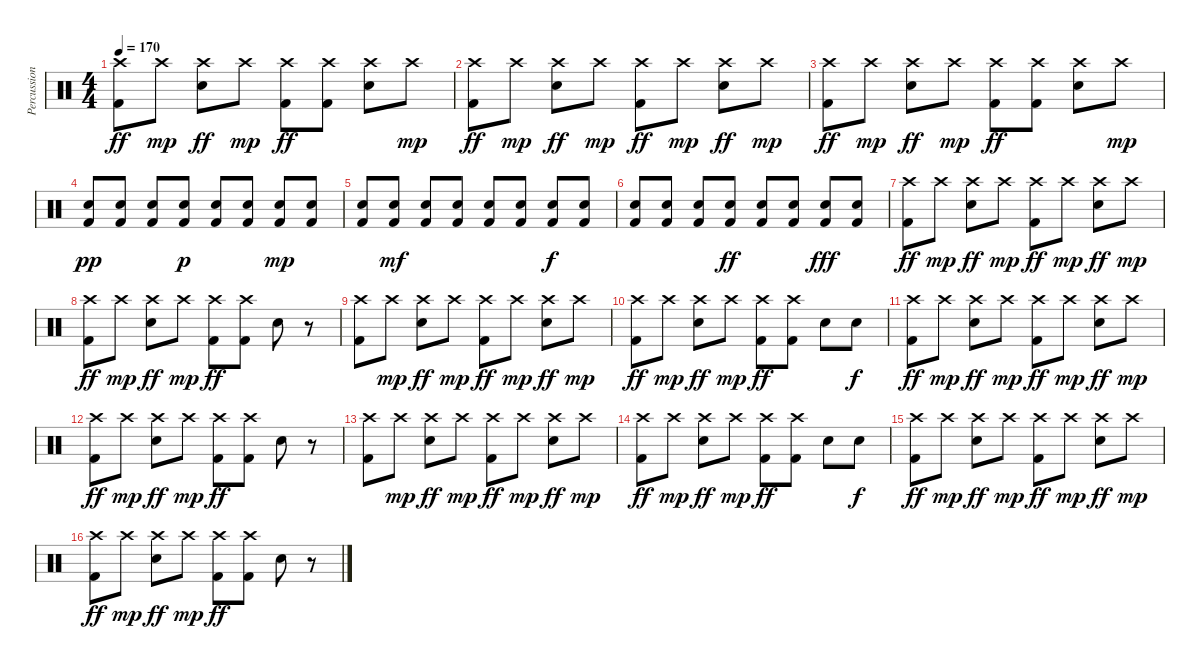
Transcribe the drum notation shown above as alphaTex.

\track ("Percussion" "Percussion") {instrument percussion}
\staff {score}
\articulation defaults
\ts (4 4)
\tempo 170
\clef neutral
\ks c
("Crash high (hit)" "Kick (hit) 2").8{dy ff} "Crash high (hit)".8{dy mp} ("Crash high (hit)" "Electric Snare (hit)").8{dy ff} "Crash high (hit)".8{dy mp} ("Crash high (hit)" "Kick (hit) 2").8{dy ff} ("Crash high (hit)" "Kick (hit) 2").8 ("Crash high (hit)" "Electric Snare (hit)").8 "Crash high (hit)".8{dy mp} |
("Crash high (hit)" "Kick (hit) 2").8{dy ff} "Crash high (hit)".8{dy mp} ("Crash high (hit)" "Electric Snare (hit)").8{dy ff} "Crash high (hit)".8{dy mp} ("Crash high (hit)" "Kick (hit) 2").8{dy ff} "Crash high (hit)".8{dy mp} ("Crash high (hit)" "Electric Snare (hit)").8{dy ff} "Crash high (hit)".8{dy mp} |
("Crash high (hit)" "Kick (hit) 2").8{dy ff} "Crash high (hit)".8{dy mp} ("Crash high (hit)" "Electric Snare (hit)").8{dy ff} "Crash high (hit)".8{dy mp} ("Crash high (hit)" "Kick (hit) 2").8{dy ff} ("Crash high (hit)" "Kick (hit) 2").8 ("Crash high (hit)" "Electric Snare (hit)").8 "Crash high (hit)".8{dy mp} |
("Electric Snare (hit)" "Kick (hit) 2").8{dy pp} ("Electric Snare (hit)" "Kick (hit) 2").8 ("Electric Snare (hit)" "Kick (hit) 2").8 ("Electric Snare (hit)" "Kick (hit) 2").8{dy p} ("Electric Snare (hit)" "Kick (hit) 2").8 ("Electric Snare (hit)" "Kick (hit) 2").8 ("Electric Snare (hit)" "Kick (hit) 2").8{dy mp} ("Electric Snare (hit)" "Kick (hit) 2").8 |
("Electric Snare (hit)" "Kick (hit) 2").8 ("Electric Snare (hit)" "Kick (hit) 2").8{dy mf} ("Electric Snare (hit)" "Kick (hit) 2").8 ("Electric Snare (hit)" "Kick (hit) 2").8 ("Electric Snare (hit)" "Kick (hit) 2").8 ("Electric Snare (hit)" "Kick (hit) 2").8 ("Electric Snare (hit)" "Kick (hit) 2").8{dy f} ("Electric Snare (hit)" "Kick (hit) 2").8 |
("Electric Snare (hit)" "Kick (hit) 2").8 ("Electric Snare (hit)" "Kick (hit) 2").8 ("Electric Snare (hit)" "Kick (hit) 2").8 ("Electric Snare (hit)" "Kick (hit) 2").8{dy ff} ("Electric Snare (hit)" "Kick (hit) 2").8 ("Electric Snare (hit)" "Kick (hit) 2").8 ("Electric Snare (hit)" "Kick (hit) 2").8{dy fff} ("Electric Snare (hit)" "Kick (hit) 2").8 |
("Crash high (hit)" "Kick (hit) 2").8{dy ff} "Crash high (hit)".8{dy mp} ("Crash high (hit)" "Electric Snare (hit)").8{dy ff} "Crash high (hit)".8{dy mp} ("Crash high (hit)" "Kick (hit) 2").8{dy ff} "Crash high (hit)".8{dy mp} ("Crash high (hit)" "Electric Snare (hit)").8{dy ff} "Crash high (hit)".8{dy mp} |
("Crash high (hit)" "Kick (hit) 2").8{dy ff} "Crash high (hit)".8{dy mp} ("Crash high (hit)" "Electric Snare (hit)").8{dy ff} "Crash high (hit)".8{dy mp} ("Crash high (hit)" "Kick (hit) 2").8{dy ff} ("Crash high (hit)" "Kick (hit) 2").8 "Electric Snare (hit)".8 r.8 |
("Crash high (hit)" "Kick (hit) 2").8 "Crash high (hit)".8{dy mp} ("Crash high (hit)" "Electric Snare (hit)").8{dy ff} "Crash high (hit)".8{dy mp} ("Crash high (hit)" "Kick (hit) 2").8{dy ff} "Crash high (hit)".8{dy mp} ("Crash high (hit)" "Electric Snare (hit)").8{dy ff} "Crash high (hit)".8{dy mp} |
("Crash high (hit)" "Kick (hit) 2").8{dy ff} "Crash high (hit)".8{dy mp} ("Crash high (hit)" "Electric Snare (hit)").8{dy ff} "Crash high (hit)".8{dy mp} ("Crash high (hit)" "Kick (hit) 2").8{dy ff} ("Crash high (hit)" "Kick (hit) 2").8 "Electric Snare (hit)".8 "Electric Snare (hit)".8{dy f} |
("Crash high (hit)" "Kick (hit) 2").8{dy ff} "Crash high (hit)".8{dy mp} ("Crash high (hit)" "Electric Snare (hit)").8{dy ff} "Crash high (hit)".8{dy mp} ("Crash high (hit)" "Kick (hit) 2").8{dy ff} "Crash high (hit)".8{dy mp} ("Crash high (hit)" "Electric Snare (hit)").8{dy ff} "Crash high (hit)".8{dy mp} |
("Crash high (hit)" "Kick (hit) 2").8{dy ff} "Crash high (hit)".8{dy mp} ("Crash high (hit)" "Electric Snare (hit)").8{dy ff} "Crash high (hit)".8{dy mp} ("Crash high (hit)" "Kick (hit) 2").8{dy ff} ("Crash high (hit)" "Kick (hit) 2").8 "Electric Snare (hit)".8 r.8 |
("Crash high (hit)" "Kick (hit) 2").8 "Crash high (hit)".8{dy mp} ("Crash high (hit)" "Electric Snare (hit)").8{dy ff} "Crash high (hit)".8{dy mp} ("Crash high (hit)" "Kick (hit) 2").8{dy ff} "Crash high (hit)".8{dy mp} ("Crash high (hit)" "Electric Snare (hit)").8{dy ff} "Crash high (hit)".8{dy mp} |
("Crash high (hit)" "Kick (hit) 2").8{dy ff} "Crash high (hit)".8{dy mp} ("Crash high (hit)" "Electric Snare (hit)").8{dy ff} "Crash high (hit)".8{dy mp} ("Crash high (hit)" "Kick (hit) 2").8{dy ff} ("Crash high (hit)" "Kick (hit) 2").8 "Electric Snare (hit)".8 "Electric Snare (hit)".8{dy f} |
("Crash high (hit)" "Kick (hit) 2").8{dy ff} "Crash high (hit)".8{dy mp} ("Crash high (hit)" "Electric Snare (hit)").8{dy ff} "Crash high (hit)".8{dy mp} ("Crash high (hit)" "Kick (hit) 2").8{dy ff} "Crash high (hit)".8{dy mp} ("Crash high (hit)" "Electric Snare (hit)").8{dy ff} "Crash high (hit)".8{dy mp} |
("Crash high (hit)" "Kick (hit) 2").8{dy ff} "Crash high (hit)".8{dy mp} ("Crash high (hit)" "Electric Snare (hit)").8{dy ff} "Crash high (hit)".8{dy mp} ("Crash high (hit)" "Kick (hit) 2").8{dy ff} ("Crash high (hit)" "Kick (hit) 2").8 "Electric Snare (hit)".8 r.8
